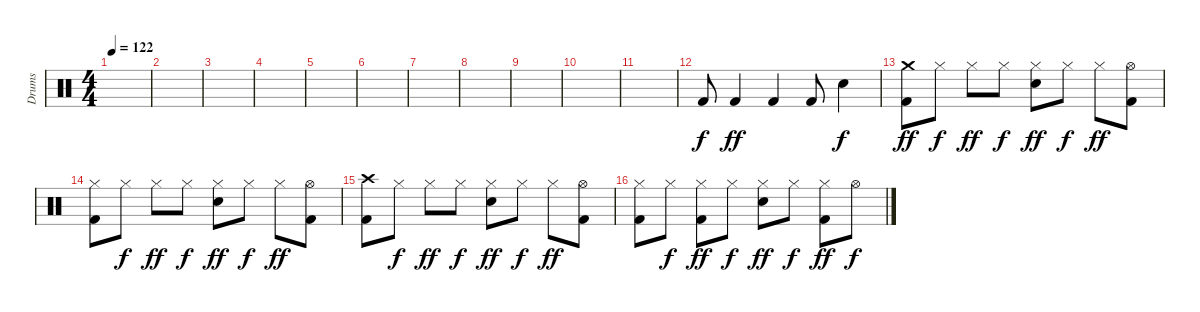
\track ("Drums" "Drums") {instrument percussion}
\staff {score}
\articulation defaults
\ts (4 4)
\tempo 122
\clef neutral
\ks c
|
|
|
|
|
|
|
|
|
|
|
"Kick (hit) 2".8{volume 16} "Kick (hit) 2".4{dy ff} "Kick (hit) 2".4 "Kick (hit) 2".8 "Snare (hit) 2".4{dy f} |
("Crash medium (hit)" "Kick (hit) 2").8{dy ff} "Hi-Hat (closed)".8{dy f} "Hi-Hat (closed)".8{dy ff} "Hi-Hat (closed)".8{dy f} ("Hi-Hat (closed)" "Snare (hit) 2").8{dy ff} "Hi-Hat (closed)".8{dy f} "Hi-Hat (closed)".8{dy ff} ("Hi-Hat (open)" "Kick (hit) 2").8 |
("Hi-Hat (closed)" "Kick (hit) 2").8 "Hi-Hat (closed)".8{dy f} "Hi-Hat (closed)".8{dy ff} "Hi-Hat (closed)".8{dy f} ("Hi-Hat (closed)" "Snare (hit) 2").8{dy ff} "Hi-Hat (closed)".8{dy f} "Hi-Hat (closed)".8{dy ff} ("Hi-Hat (open)" "Kick (hit) 2").8 |
("Crash high (hit)" "Kick (hit) 2").8 "Hi-Hat (closed)".8{dy f} "Hi-Hat (closed)".8{dy ff} "Hi-Hat (closed)".8{dy f} ("Hi-Hat (closed)" "Snare (hit) 2").8{dy ff} "Hi-Hat (closed)".8{dy f} "Hi-Hat (closed)".8{dy ff} ("Hi-Hat (open)" "Kick (hit) 2").8 |
("Hi-Hat (closed)" "Kick (hit) 2").8 "Hi-Hat (closed)".8{dy f} ("Hi-Hat (closed)" "Kick (hit) 2").8{dy ff} "Hi-Hat (closed)".8{dy f} ("Hi-Hat (closed)" "Snare (hit) 2").8{dy ff} "Hi-Hat (closed)".8{dy f} ("Hi-Hat (closed)" "Kick (hit) 2").8{dy ff} "Hi-Hat (open)".8{dy f}
